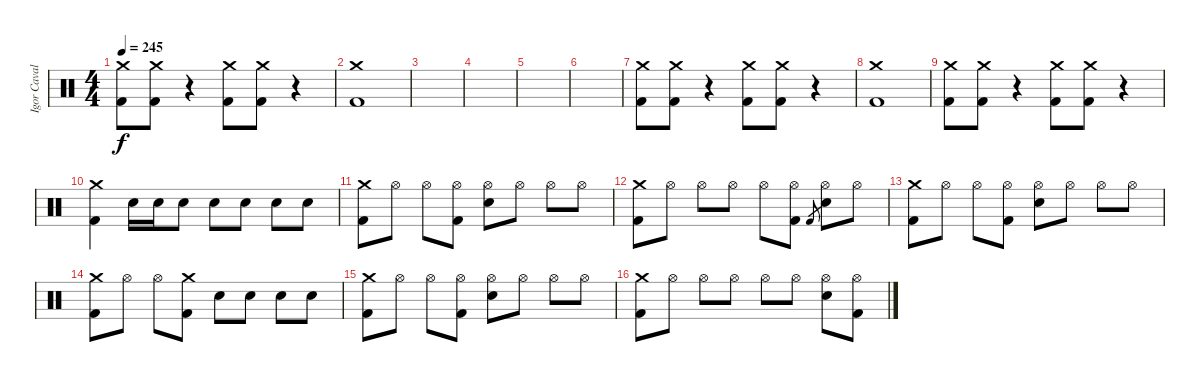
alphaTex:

\track ("Igor Cavalera" "Igor Caval") {instrument percussion}
\staff {score}
\articulation defaults
\ts (4 4)
\tempo 245
\tempo 240
\tempo 245
\clef neutral
\ks c
("Kick (hit) 2" "Crash medium (hit)").8{dy f} ("Kick (hit) 2" "Crash medium (hit)").8 r.4 ("Kick (hit) 2" "Crash medium (hit)").8 ("Kick (hit) 2" "Crash medium (hit)").8 r.4 |
("Crash medium (hit)" "Kick (hit) 2").1 |
|
|
|
|
("Kick (hit) 2" "Crash medium (hit)").8 ("Kick (hit) 2" "Crash medium (hit)").8 r.4 ("Kick (hit) 2" "Crash medium (hit)").8 ("Kick (hit) 2" "Crash medium (hit)").8 r.4 |
("Crash medium (hit)" "Kick (hit) 2").1 |
("Kick (hit) 2" "Crash medium (hit)").8 ("Kick (hit) 2" "Crash medium (hit)").8 r.4 ("Kick (hit) 2" "Crash medium (hit)").8 ("Kick (hit) 2" "Crash medium (hit)").8 r.4 |
("Crash medium (hit)" "Kick (hit) 2").4 "Electric Snare (hit)".16 "Electric Snare (hit)".16 "Electric Snare (hit)".8 "Electric Snare (hit)".8 "Electric Snare (hit)".8 "Electric Snare (hit)".8 "Electric Snare (hit)".8 |
("Kick (hit) 2" "Crash medium (hit)").8 "Hi-Hat (open)".8 "Hi-Hat (open)".8 ("Kick (hit) 2" "Hi-Hat (open)").8 ("Electric Snare (hit)" "Hi-Hat (open)").8 "Hi-Hat (open)".8 "Hi-Hat (open)".8 "Hi-Hat (open)".8 |
("Kick (hit) 2" "Crash medium (hit)").8 "Hi-Hat (open)".8 "Hi-Hat (open)".8 "Hi-Hat (open)".8 "Hi-Hat (open)".8 ("Kick (hit) 2" "Hi-Hat (open)").8 "Kick (hit) 2".8{gr} ("Electric Snare (hit)" "Hi-Hat (open)").8 "Hi-Hat (open)".8 |
("Kick (hit) 2" "Crash medium (hit)").8 "Hi-Hat (open)".8 "Hi-Hat (open)".8 ("Kick (hit) 2" "Hi-Hat (open)").8 ("Electric Snare (hit)" "Hi-Hat (open)").8 "Hi-Hat (open)".8 "Hi-Hat (open)".8 "Hi-Hat (open)".8 |
("Kick (hit) 2" "Crash medium (hit)").8 "Hi-Hat (open)".8 "Hi-Hat (open)".8 ("Kick (hit) 2" "Crash medium (hit)").8 "Electric Snare (hit)".8 "Electric Snare (hit)".8 "Electric Snare (hit)".8 "Electric Snare (hit)".8 |
("Kick (hit) 2" "Crash medium (hit)").8 "Hi-Hat (open)".8 "Hi-Hat (open)".8 ("Kick (hit) 2" "Hi-Hat (open)").8 ("Electric Snare (hit)" "Hi-Hat (open)").8 "Hi-Hat (open)".8 "Hi-Hat (open)".8 "Hi-Hat (open)".8 |
("Kick (hit) 2" "Crash medium (hit)").8 "Hi-Hat (open)".8 "Hi-Hat (open)".8 "Hi-Hat (open)".8 "Hi-Hat (open)".8 "Hi-Hat (open)".8 ("Electric Snare (hit)" "Hi-Hat (open)").8 ("Kick (hit) 2" "Hi-Hat (open)").8
